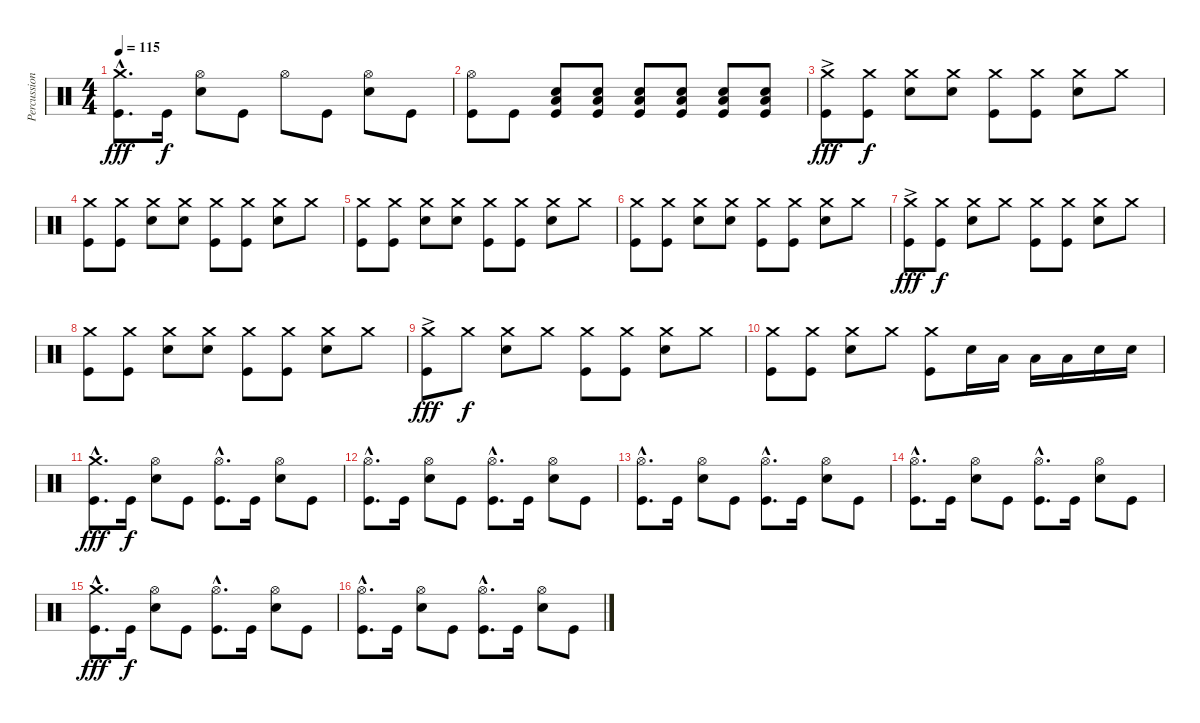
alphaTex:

\track ("Percussion" "Percussion") {instrument percussion}
\staff {score}
\articulation defaults
\ts (4 4)
\tempo 115
\clef neutral
\ks c
("Crash medium (hit)"{hac} "Kick (hit)"{hac}).8{d dy fff} "Kick (hit)".16{dy f} ("Hi-Hat (open)" "Snare (hit) 2").8 "Kick (hit)".8 "Hi-Hat (open)".8 "Kick (hit)".8 ("Hi-Hat (open)" "Snare (hit) 2").8 "Kick (hit)".8 |
("Hi-Hat (open)" "Kick (hit)").8 "Kick (hit)".8 ("Snare (hit) 2" "Low Floor Tom (hit)" "Kick (hit)").8{volume 16} ("Snare (hit) 2" "Low Floor Tom (hit)" "Kick (hit)").8 ("Snare (hit) 2" "Low Floor Tom (hit)" "Kick (hit)").8 ("Snare (hit) 2" "Low Floor Tom (hit)" "Kick (hit)").8 ("Snare (hit) 2" "Low Floor Tom (hit)" "Kick (hit)").8 ("Snare (hit) 2" "Low Floor Tom (hit)" "Kick (hit)").8 |
("Crash medium (hit)"{ac} "Kick (hit)").8{dy fff volume 13} ("Crash medium (hit)" "Kick (hit)").8{dy f} ("Crash medium (hit)" "Snare (hit) 2").8 ("Crash medium (hit)" "Snare (hit) 2").8 ("Crash medium (hit)" "Kick (hit)").8 ("Crash medium (hit)" "Kick (hit)").8 ("Crash medium (hit)" "Snare (hit) 2").8 "Crash medium (hit)".8 |
("Crash medium (hit)" "Kick (hit)").8 ("Crash medium (hit)" "Kick (hit)").8 ("Crash medium (hit)" "Snare (hit) 2").8 ("Crash medium (hit)" "Snare (hit) 2").8 ("Crash medium (hit)" "Kick (hit)").8 ("Crash medium (hit)" "Kick (hit)").8 ("Crash medium (hit)" "Snare (hit) 2").8 "Crash medium (hit)".8 |
("Crash medium (hit)" "Kick (hit)").8 ("Crash medium (hit)" "Kick (hit)").8 ("Crash medium (hit)" "Snare (hit) 2").8 ("Crash medium (hit)" "Snare (hit) 2").8 ("Crash medium (hit)" "Kick (hit)").8 ("Crash medium (hit)" "Kick (hit)").8 ("Crash medium (hit)" "Snare (hit) 2").8 "Crash medium (hit)".8 |
("Crash medium (hit)" "Kick (hit)").8 ("Crash medium (hit)" "Kick (hit)").8 ("Crash medium (hit)" "Snare (hit) 2").8 ("Crash medium (hit)" "Snare (hit) 2").8 ("Crash medium (hit)" "Kick (hit)").8 ("Crash medium (hit)" "Kick (hit)").8 ("Crash medium (hit)" "Snare (hit) 2").8 "Crash medium (hit)".8 |
("Crash medium (hit)"{ac} "Kick (hit)").8{dy fff} ("Crash medium (hit)" "Kick (hit)").8{dy f} ("Crash medium (hit)" "Snare (hit) 2").8 "Crash medium (hit)".8 ("Crash medium (hit)" "Kick (hit)").8 ("Crash medium (hit)" "Kick (hit)").8 ("Crash medium (hit)" "Snare (hit) 2").8 "Crash medium (hit)".8 |
("Crash medium (hit)" "Kick (hit)").8 ("Crash medium (hit)" "Kick (hit)").8 ("Crash medium (hit)" "Snare (hit) 2").8 ("Crash medium (hit)" "Snare (hit) 2").8 ("Crash medium (hit)" "Kick (hit)").8 ("Crash medium (hit)" "Kick (hit)").8 ("Crash medium (hit)" "Snare (hit) 2").8 "Crash medium (hit)".8 |
("Crash medium (hit)"{ac} "Kick (hit)").8{dy fff} "Crash medium (hit)".8{dy f} ("Crash medium (hit)" "Snare (hit) 2").8 "Crash medium (hit)".8 ("Crash medium (hit)" "Kick (hit)").8 ("Crash medium (hit)" "Kick (hit)").8 ("Crash medium (hit)" "Snare (hit) 2").8 "Crash medium (hit)".8 |
("Crash medium (hit)" "Kick (hit)").8 ("Crash medium (hit)" "Kick (hit)").8 ("Crash medium (hit)" "Snare (hit) 2").8 "Crash medium (hit)".8 ("Crash medium (hit)" "Kick (hit)").8 "Snare (hit) 2".16 "Low Tom (hit)".16 "Low Floor Tom (hit)".16 "Low Floor Tom (hit)".16 "Snare (hit) 2".16 "Snare (hit) 2".16 |
("Crash medium (hit)"{hac} "Kick (hit)"{hac}).8{d dy fff} "Kick (hit)".16{dy f} ("Hi-Hat (open)" "Snare (hit) 2").8 "Kick (hit)".8 ("Hi-Hat (open)"{hac} "Kick (hit)"{hac}).8{d} "Kick (hit)".16 ("Hi-Hat (open)" "Snare (hit) 2").8 "Kick (hit)".8 |
("Hi-Hat (open)"{hac} "Kick (hit)"{hac}).8{d} "Kick (hit)".16 ("Hi-Hat (open)" "Snare (hit) 2").8 "Kick (hit)".8 ("Hi-Hat (open)"{hac} "Kick (hit)"{hac}).8{d} "Kick (hit)".16 ("Hi-Hat (open)" "Snare (hit) 2").8 "Kick (hit)".8 |
("Hi-Hat (open)"{hac} "Kick (hit)"{hac}).8{d} "Kick (hit)".16 ("Hi-Hat (open)" "Snare (hit) 2").8 "Kick (hit)".8 ("Hi-Hat (open)"{hac} "Kick (hit)"{hac}).8{d} "Kick (hit)".16 ("Hi-Hat (open)" "Snare (hit) 2").8 "Kick (hit)".8 |
("Hi-Hat (open)"{hac} "Kick (hit)"{hac}).8{d} "Kick (hit)".16 ("Hi-Hat (open)" "Snare (hit) 2").8 "Kick (hit)".8 ("Hi-Hat (open)"{hac} "Kick (hit)"{hac}).8{d} "Kick (hit)".16 ("Hi-Hat (open)" "Snare (hit) 2").8 "Kick (hit)".8 |
("Crash medium (hit)"{hac} "Kick (hit)"{hac}).8{d dy fff} "Kick (hit)".16{dy f} ("Hi-Hat (open)" "Snare (hit) 2").8 "Kick (hit)".8 ("Hi-Hat (open)"{hac} "Kick (hit)"{hac}).8{d} "Kick (hit)".16 ("Hi-Hat (open)" "Snare (hit) 2").8 "Kick (hit)".8 |
("Hi-Hat (open)"{hac} "Kick (hit)"{hac}).8{d} "Kick (hit)".16 ("Hi-Hat (open)" "Snare (hit) 2").8 "Kick (hit)".8 ("Hi-Hat (open)"{hac} "Kick (hit)"{hac}).8{d} "Kick (hit)".16 ("Hi-Hat (open)" "Snare (hit) 2").8 "Kick (hit)".8
